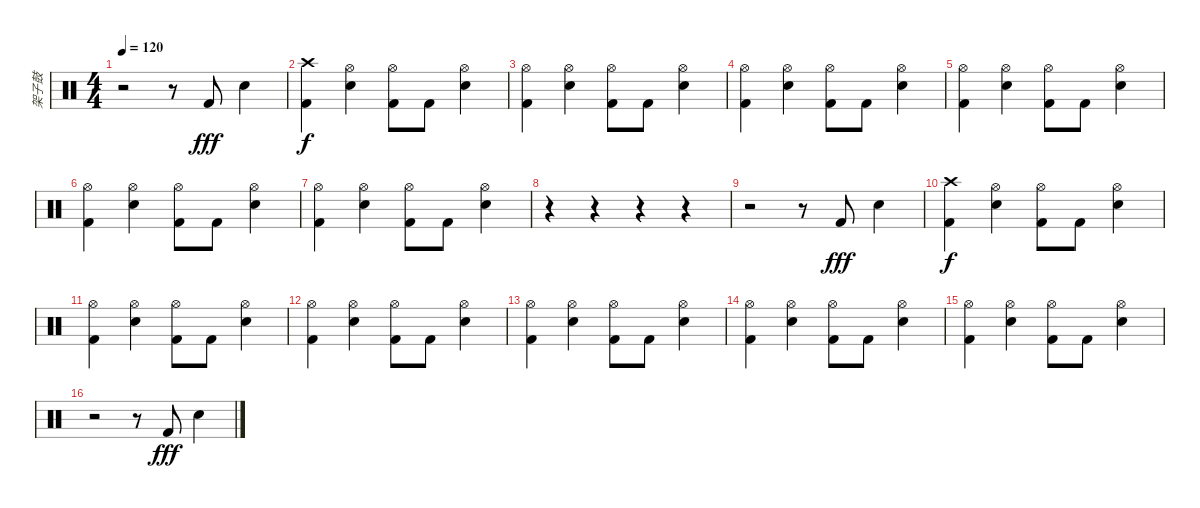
\track ("架子鼓" "架子鼓") {instrument percussion}
\staff {score}
\articulation defaults
\ts (4 4)
\tempo 120
\clef neutral
\ks c
r.2{dy fff} r.8 "Kick (hit) 2".8 "Snare (hit) 2".4 |
("Crash high (hit)" "Kick (hit) 2").4{dy f} ("Hi-Hat (open)" "Snare (hit) 2").4 ("Hi-Hat (open)" "Kick (hit) 2").8 "Kick (hit) 2".8 ("Hi-Hat (open)" "Snare (hit) 2").4 |
("Hi-Hat (open)" "Kick (hit) 2").4 ("Hi-Hat (open)" "Snare (hit) 2").4 ("Hi-Hat (open)" "Kick (hit) 2").8 "Kick (hit) 2".8 ("Hi-Hat (open)" "Snare (hit) 2").4 |
("Hi-Hat (open)" "Kick (hit) 2").4 ("Hi-Hat (open)" "Snare (hit) 2").4 ("Hi-Hat (open)" "Kick (hit) 2").8 "Kick (hit) 2".8 ("Hi-Hat (open)" "Snare (hit) 2").4 |
("Hi-Hat (open)" "Kick (hit) 2").4 ("Hi-Hat (open)" "Snare (hit) 2").4 ("Hi-Hat (open)" "Kick (hit) 2").8 "Kick (hit) 2".8 ("Hi-Hat (open)" "Snare (hit) 2").4 |
("Hi-Hat (open)" "Kick (hit) 2").4 ("Hi-Hat (open)" "Snare (hit) 2").4 ("Hi-Hat (open)" "Kick (hit) 2").8 "Kick (hit) 2".8 ("Hi-Hat (open)" "Snare (hit) 2").4 |
("Hi-Hat (open)" "Kick (hit) 2").4 ("Hi-Hat (open)" "Snare (hit) 2").4 ("Hi-Hat (open)" "Kick (hit) 2").8 "Kick (hit) 2".8 ("Hi-Hat (open)" "Snare (hit) 2").4 |
r.4 r.4 r.4 r.4 |
r.2 r.8 "Kick (hit) 2".8{dy fff} "Snare (hit) 2".4 |
("Crash high (hit)" "Kick (hit) 2").4{dy f} ("Hi-Hat (open)" "Snare (hit) 2").4 ("Hi-Hat (open)" "Kick (hit) 2").8 "Kick (hit) 2".8 ("Hi-Hat (open)" "Snare (hit) 2").4 |
("Hi-Hat (open)" "Kick (hit) 2").4 ("Hi-Hat (open)" "Snare (hit) 2").4 ("Hi-Hat (open)" "Kick (hit) 2").8 "Kick (hit) 2".8 ("Hi-Hat (open)" "Snare (hit) 2").4 |
("Hi-Hat (open)" "Kick (hit) 2").4 ("Hi-Hat (open)" "Snare (hit) 2").4 ("Hi-Hat (open)" "Kick (hit) 2").8 "Kick (hit) 2".8 ("Hi-Hat (open)" "Snare (hit) 2").4 |
("Hi-Hat (open)" "Kick (hit) 2").4 ("Hi-Hat (open)" "Snare (hit) 2").4 ("Hi-Hat (open)" "Kick (hit) 2").8 "Kick (hit) 2".8 ("Hi-Hat (open)" "Snare (hit) 2").4 |
("Hi-Hat (open)" "Kick (hit) 2").4 ("Hi-Hat (open)" "Snare (hit) 2").4 ("Hi-Hat (open)" "Kick (hit) 2").8 "Kick (hit) 2".8 ("Hi-Hat (open)" "Snare (hit) 2").4 |
("Hi-Hat (open)" "Kick (hit) 2").4 ("Hi-Hat (open)" "Snare (hit) 2").4 ("Hi-Hat (open)" "Kick (hit) 2").8 "Kick (hit) 2".8 ("Hi-Hat (open)" "Snare (hit) 2").4 |
r.2 r.8 "Kick (hit) 2".8{dy fff} "Snare (hit) 2".4
